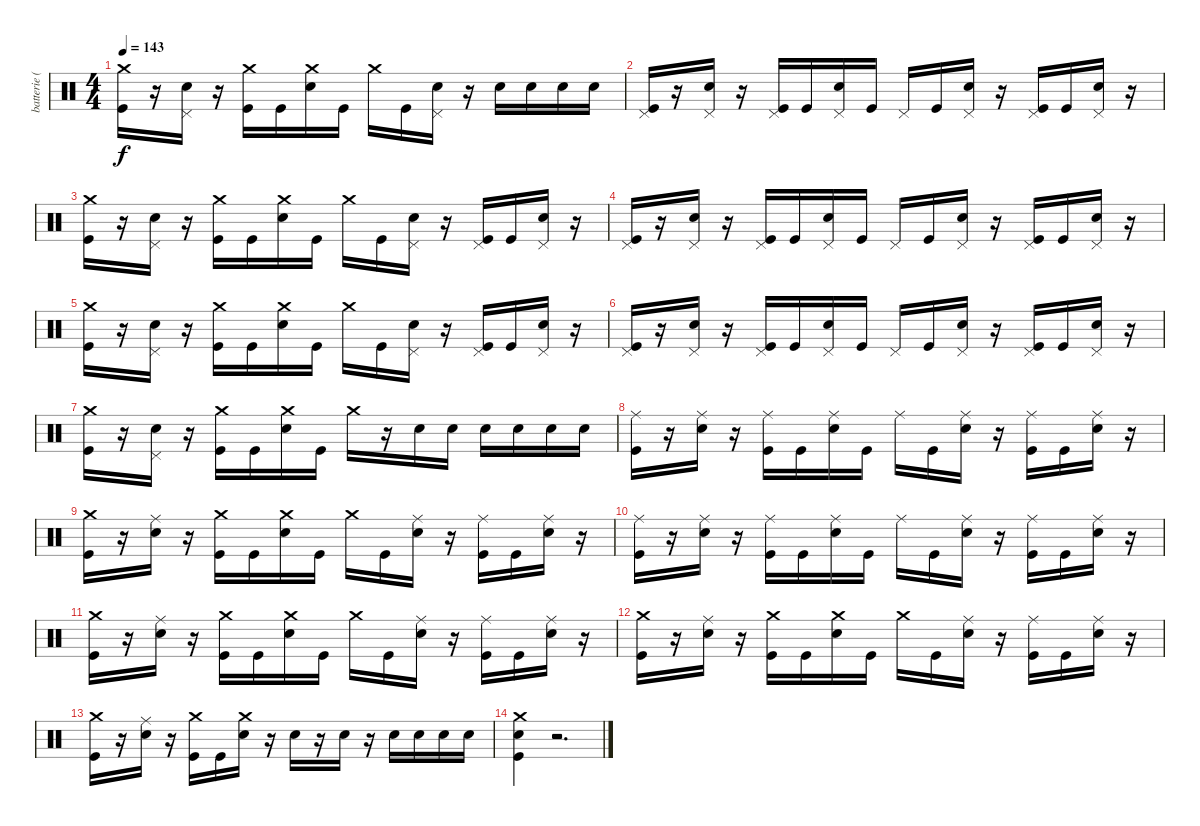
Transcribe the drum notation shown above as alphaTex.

\track ("batterie ( Vinnie ) " "batterie (") {instrument percussion}
\staff {score}
\articulation defaults
\ts (4 4)
\tempo 143
\clef neutral
\ks c
("Crash medium (hit)" "Kick (hit)").16{dy f} r.16 ("Pedal Hi-Hat (hit)" "Snare (hit) 2").16 r.16 ("Crash medium (hit)" "Kick (hit)").16 "Kick (hit)".16 ("Crash medium (hit)" "Snare (hit) 2").16 "Kick (hit)".16 "Crash medium (hit)".16 "Kick (hit)".16 ("Pedal Hi-Hat (hit)" "Snare (hit) 2").16 r.16 "Snare (hit) 2".16 "Snare (hit) 2".16 "Snare (hit) 2".16 "Snare (hit) 2".16 |
("Pedal Hi-Hat (hit)" "Kick (hit)").16 r.16 ("Pedal Hi-Hat (hit)" "Snare (hit) 2").16 r.16 ("Pedal Hi-Hat (hit)" "Kick (hit)").16 "Kick (hit)".16 ("Pedal Hi-Hat (hit)" "Snare (hit) 2").16 "Kick (hit)".16 "Pedal Hi-Hat (hit)".16 "Kick (hit)".16 ("Pedal Hi-Hat (hit)" "Snare (hit) 2").16 r.16 ("Pedal Hi-Hat (hit)" "Kick (hit)").16 "Kick (hit)".16 ("Pedal Hi-Hat (hit)" "Snare (hit) 2").16 r.16 |
("Crash medium (hit)" "Kick (hit)").16 r.16 ("Pedal Hi-Hat (hit)" "Snare (hit) 2").16 r.16 ("Crash medium (hit)" "Kick (hit)").16 "Kick (hit)".16 ("Crash medium (hit)" "Snare (hit) 2").16 "Kick (hit)".16 "Crash medium (hit)".16 "Kick (hit)".16 ("Pedal Hi-Hat (hit)" "Snare (hit) 2").16 r.16 ("Pedal Hi-Hat (hit)" "Kick (hit)").16 "Kick (hit)".16 ("Pedal Hi-Hat (hit)" "Snare (hit) 2").16 r.16 |
("Pedal Hi-Hat (hit)" "Kick (hit)").16 r.16 ("Pedal Hi-Hat (hit)" "Snare (hit) 2").16 r.16 ("Pedal Hi-Hat (hit)" "Kick (hit)").16 "Kick (hit)".16 ("Pedal Hi-Hat (hit)" "Snare (hit) 2").16 "Kick (hit)".16 "Pedal Hi-Hat (hit)".16 "Kick (hit)".16 ("Pedal Hi-Hat (hit)" "Snare (hit) 2").16 r.16 ("Pedal Hi-Hat (hit)" "Kick (hit)").16 "Kick (hit)".16 ("Pedal Hi-Hat (hit)" "Snare (hit) 2").16 r.16 |
("Crash medium (hit)" "Kick (hit)").16 r.16 ("Pedal Hi-Hat (hit)" "Snare (hit) 2").16 r.16 ("Crash medium (hit)" "Kick (hit)").16 "Kick (hit)".16 ("Crash medium (hit)" "Snare (hit) 2").16 "Kick (hit)".16 "Crash medium (hit)".16 "Kick (hit)".16 ("Pedal Hi-Hat (hit)" "Snare (hit) 2").16 r.16 ("Pedal Hi-Hat (hit)" "Kick (hit)").16 "Kick (hit)".16 ("Pedal Hi-Hat (hit)" "Snare (hit) 2").16 r.16 |
("Pedal Hi-Hat (hit)" "Kick (hit)").16 r.16 ("Pedal Hi-Hat (hit)" "Snare (hit) 2").16 r.16 ("Pedal Hi-Hat (hit)" "Kick (hit)").16 "Kick (hit)".16 ("Pedal Hi-Hat (hit)" "Snare (hit) 2").16 "Kick (hit)".16 "Pedal Hi-Hat (hit)".16 "Kick (hit)".16 ("Pedal Hi-Hat (hit)" "Snare (hit) 2").16 r.16 ("Pedal Hi-Hat (hit)" "Kick (hit)").16 "Kick (hit)".16 ("Pedal Hi-Hat (hit)" "Snare (hit) 2").16 r.16 |
("Crash medium (hit)" "Kick (hit)").16 r.16 ("Pedal Hi-Hat (hit)" "Snare (hit) 2").16 r.16 ("Crash medium (hit)" "Kick (hit)").16 "Kick (hit)".16 ("Crash medium (hit)" "Snare (hit) 2").16 "Kick (hit)".16 "Crash medium (hit)".16 r.16 "Snare (hit) 2".16 "Snare (hit) 2".16 "Snare (hit) 2".16 "Snare (hit) 2".16 "Snare (hit) 2".16 "Snare (hit) 2".16 |
("Ride (middle)" "Kick (hit)").16 r.16 ("Ride (middle)" "Snare (hit) 2").16 r.16 ("Ride (middle)" "Kick (hit)").16 "Kick (hit)".16 ("Ride (middle)" "Snare (hit) 2").16 "Kick (hit)".16 "Ride (middle)".16 "Kick (hit)".16 ("Ride (middle)" "Snare (hit) 2").16 r.16 ("Ride (middle)" "Kick (hit)").16 "Kick (hit)".16 ("Ride (middle)" "Snare (hit) 2").16 r.16 |
("Crash medium (hit)" "Kick (hit)").16 r.16 ("Ride (middle)" "Snare (hit) 2").16 r.16 ("Crash medium (hit)" "Kick (hit)").16 "Kick (hit)".16 ("Crash medium (hit)" "Snare (hit) 2").16 "Kick (hit)".16 "Crash medium (hit)".16 "Kick (hit)".16 ("Ride (middle)" "Snare (hit) 2").16 r.16 ("Ride (middle)" "Kick (hit)").16 "Kick (hit)".16 ("Ride (middle)" "Snare (hit) 2").16 r.16 |
("Ride (middle)" "Kick (hit)").16 r.16 ("Ride (middle)" "Snare (hit) 2").16 r.16 ("Ride (middle)" "Kick (hit)").16 "Kick (hit)".16 ("Ride (middle)" "Snare (hit) 2").16 "Kick (hit)".16 "Ride (middle)".16 "Kick (hit)".16 ("Ride (middle)" "Snare (hit) 2").16 r.16 ("Ride (middle)" "Kick (hit)").16 "Kick (hit)".16 ("Ride (middle)" "Snare (hit) 2").16 r.16 |
("Crash medium (hit)" "Kick (hit)").16 r.16 ("Ride (middle)" "Snare (hit) 2").16 r.16 ("Crash medium (hit)" "Kick (hit)").16 "Kick (hit)".16 ("Crash medium (hit)" "Snare (hit) 2").16 "Kick (hit)".16 "Crash medium (hit)".16 "Kick (hit)".16 ("Ride (middle)" "Snare (hit) 2").16 r.16 ("Ride (middle)" "Kick (hit)").16 "Kick (hit)".16 ("Ride (middle)" "Snare (hit) 2").16 r.16 |
("Crash medium (hit)" "Kick (hit)").16 r.16 ("Ride (middle)" "Snare (hit) 2").16 r.16 ("Crash medium (hit)" "Kick (hit)").16 "Kick (hit)".16 ("Crash medium (hit)" "Snare (hit) 2").16 "Kick (hit)".16 "Crash medium (hit)".16 "Kick (hit)".16 ("Ride (middle)" "Snare (hit) 2").16 r.16 ("Ride (middle)" "Kick (hit)").16 "Kick (hit)".16 ("Ride (middle)" "Snare (hit) 2").16 r.16 |
("Crash medium (hit)" "Kick (hit)").16 r.16 ("Ride (middle)" "Snare (hit) 2").16 r.16 ("Crash medium (hit)" "Kick (hit)").16 "Kick (hit)".16 ("Crash medium (hit)" "Snare (hit) 2").16 r.16 "Snare (hit) 2".16 r.16 "Snare (hit) 2".16 r.16 "Snare (hit) 2".16 "Snare (hit) 2".16 "Snare (hit) 2".16 "Snare (hit) 2".16 |
("Crash medium (hit)" "Snare (hit) 2" "Kick (hit)").4 r.2{d}
